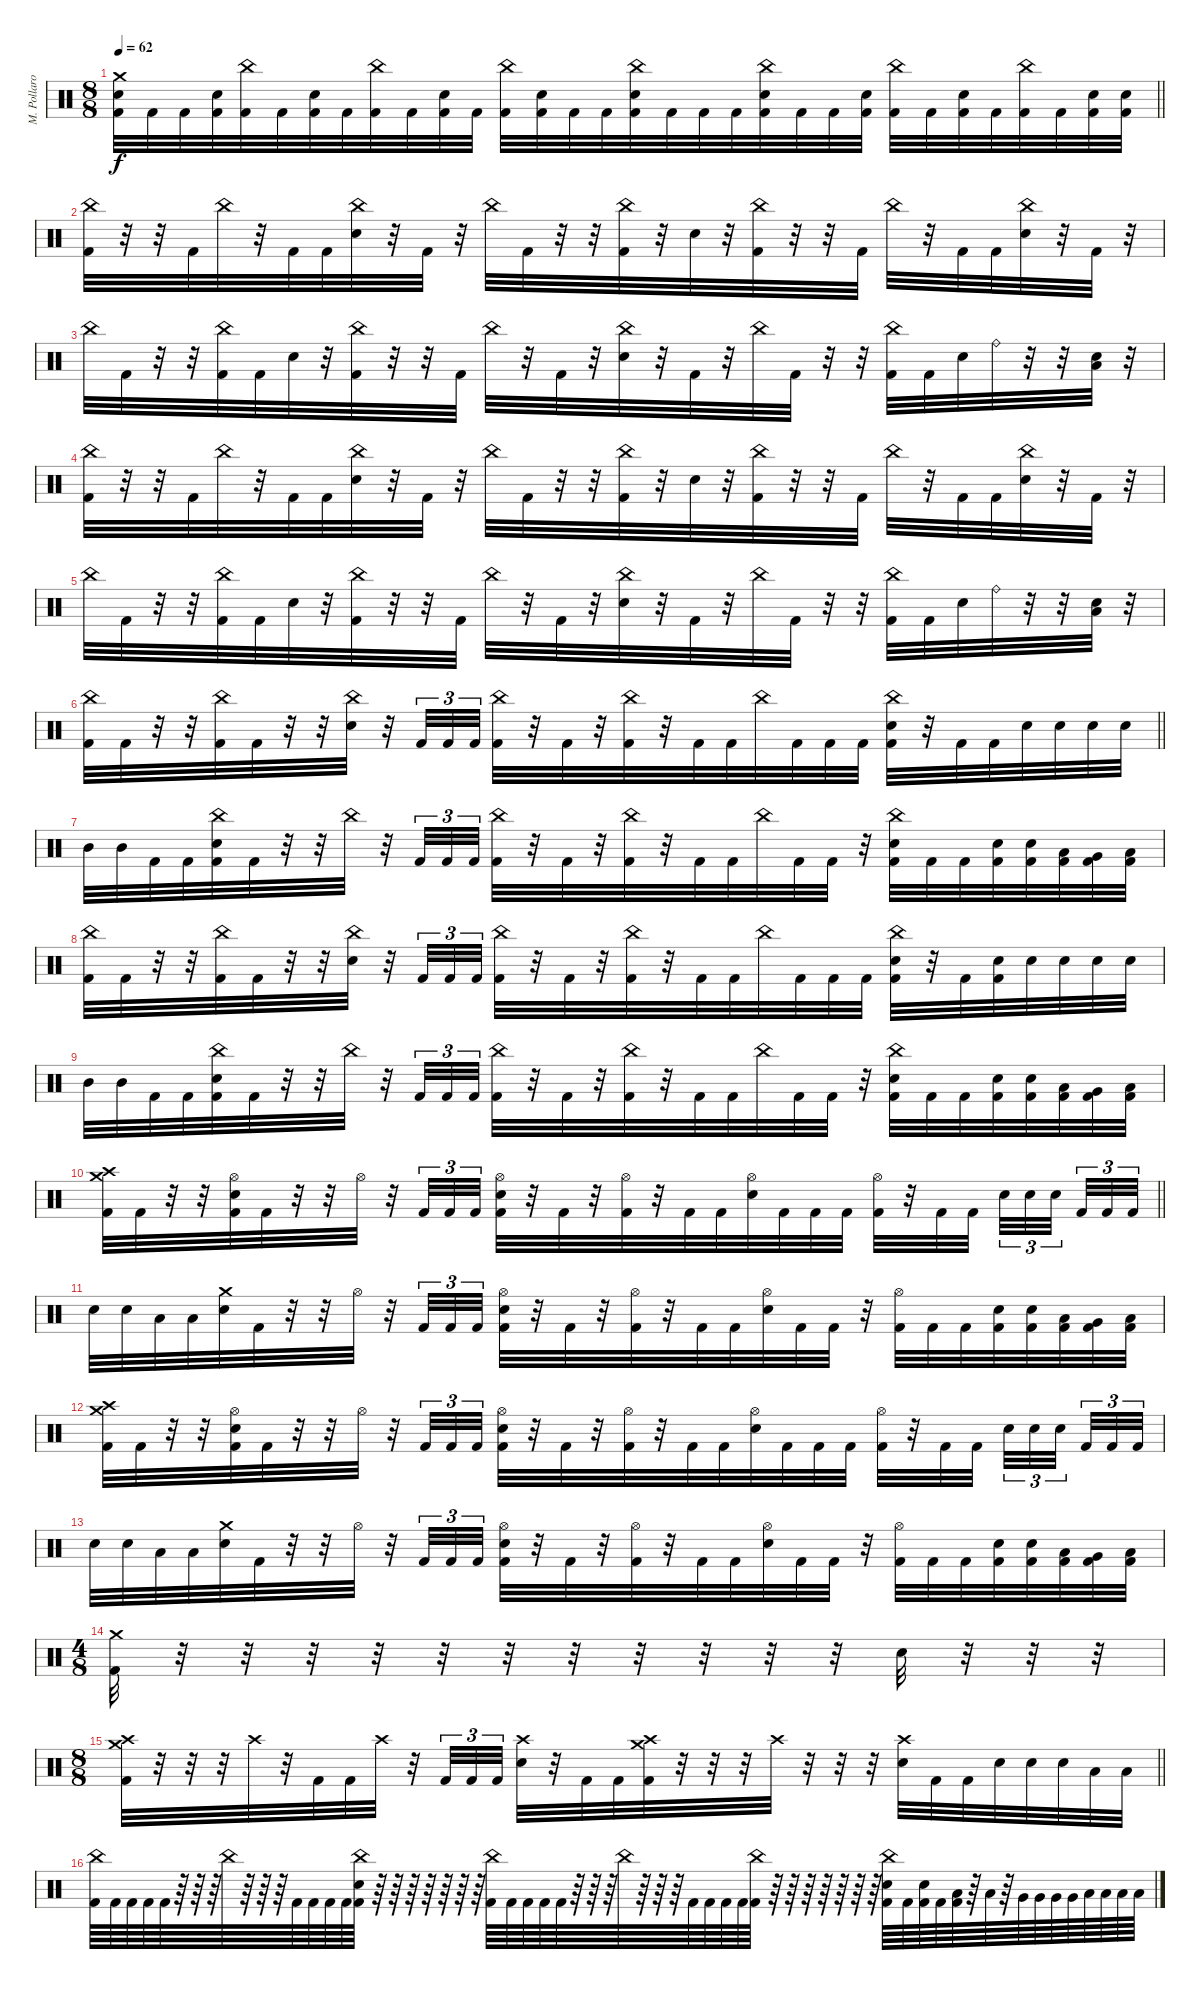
\track ("M. Pollaro" "M. Pollaro") {instrument percussion}
\staff {score}
\articulation defaults
\ts (8 8)
\tempo 62
\clef neutral
\barLineRight lightlight
\ks aminor
("Crash medium (hit)" "Snare (hit) 2" "Kick (hit) 2").32{dy f} "Kick (hit) 2".32 "Kick (hit) 2".32 ("Snare (hit) 2" "Kick (hit) 2").32 ("China (hit)" "Kick (hit) 2").32 "Kick (hit) 2".32 ("Snare (hit) 2" "Kick (hit) 2").32 "Kick (hit) 2".32 ("China (hit)" "Kick (hit) 2").32 "Kick (hit) 2".32 ("Snare (hit) 2" "Kick (hit) 2").32 "Kick (hit) 2".32 ("China (hit)" "Kick (hit) 2").32 ("Snare (hit) 2" "Kick (hit) 2").32 "Kick (hit) 2".32 "Kick (hit) 2".32 ("China (hit)" "Snare (hit) 2" "Kick (hit) 2").32 "Kick (hit) 2".32 "Kick (hit) 2".32 "Kick (hit) 2".32 ("China (hit)" "Snare (hit) 2" "Kick (hit) 2").32 "Kick (hit) 2".32 "Kick (hit) 2".32 ("Snare (hit) 2" "Kick (hit) 2").32 ("China (hit)" "Kick (hit) 2").32 "Kick (hit) 2".32 ("Snare (hit) 2" "Kick (hit) 2").32 "Kick (hit) 2".32 ("China (hit)" "Kick (hit) 2").32 "Kick (hit) 2".32 ("Snare (hit) 2" "Kick (hit) 2").32 ("Snare (hit) 2" "Kick (hit) 2").32 |
("China (hit)" "Kick (hit) 2").32 r.32 r.32 "Kick (hit) 2".32 "China (hit)".32 r.32 "Kick (hit) 2".32 "Kick (hit) 2".32 ("China (hit)" "Snare (hit) 2").32 r.32 "Kick (hit) 2".32 r.32 "China (hit)".32 "Kick (hit) 2".32 r.32 r.32 ("China (hit)" "Kick (hit) 2").32 r.32 "Snare (hit) 2".32 r.32 ("China (hit)" "Kick (hit) 2").32 r.32 r.32 "Kick (hit) 2".32 "China (hit)".32 r.32 "Kick (hit) 2".32 "Kick (hit) 2".32 ("China (hit)" "Snare (hit) 2").32 r.32 "Kick (hit) 2".32 r.32 |
"China (hit)".32 "Kick (hit) 2".32 r.32 r.32 ("China (hit)" "Kick (hit) 2").32 "Kick (hit) 2".32 "Snare (hit) 2".32 r.32 ("China (hit)" "Kick (hit) 2").32 r.32 r.32 "Kick (hit) 2".32 "China (hit)".32 r.32 "Kick (hit) 2".32 r.32 ("China (hit)" "Snare (hit) 2").32 r.32 "Kick (hit) 2".32 r.32 "China (hit)".32 "Kick (hit) 2".32 r.32 r.32 ("China (hit)" "Kick (hit) 2").32 "Kick (hit) 2".32 "Snare (hit) 2".32 "Ride (bell)".32 r.32 r.32 ("Low Floor Tom (hit)" "Snare (hit) 2").32 r.32 |
("China (hit)" "Kick (hit) 2").32 r.32 r.32 "Kick (hit) 2".32 "China (hit)".32 r.32 "Kick (hit) 2".32 "Kick (hit) 2".32 ("China (hit)" "Snare (hit) 2").32 r.32 "Kick (hit) 2".32 r.32 "China (hit)".32 "Kick (hit) 2".32 r.32 r.32 ("China (hit)" "Kick (hit) 2").32 r.32 "Snare (hit) 2".32 r.32 ("China (hit)" "Kick (hit) 2").32 r.32 r.32 "Kick (hit) 2".32 "China (hit)".32 r.32 "Kick (hit) 2".32 "Kick (hit) 2".32 ("China (hit)" "Snare (hit) 2").32 r.32 "Kick (hit) 2".32 r.32 |
"China (hit)".32 "Kick (hit) 2".32 r.32 r.32 ("China (hit)" "Kick (hit) 2").32 "Kick (hit) 2".32 "Snare (hit) 2".32 r.32 ("China (hit)" "Kick (hit) 2").32 r.32 r.32 "Kick (hit) 2".32 "China (hit)".32 r.32 "Kick (hit) 2".32 r.32 ("China (hit)" "Snare (hit) 2").32 r.32 "Kick (hit) 2".32 r.32 "China (hit)".32 "Kick (hit) 2".32 r.32 r.32 ("China (hit)" "Kick (hit) 2").32 "Kick (hit) 2".32 "Snare (hit) 2".32 "Ride (bell)".32 r.32 r.32 ("Low Floor Tom (hit)" "Snare (hit) 2").32 r.32 |
\barLineRight lightlight
("China (hit)" "Kick (hit) 2").32 "Kick (hit) 2".32 r.32 r.32 ("China (hit)" "Kick (hit) 2").32 "Kick (hit) 2".32 r.32 r.32 ("China (hit)" "Snare (hit) 2").32 r.32 "Kick (hit) 2".32{tu (3 2)} "Kick (hit) 2".32{tu (3 2)} "Kick (hit) 2".32{tu (3 2)} ("China (hit)" "Kick (hit) 2").32 r.32 "Kick (hit) 2".32 r.32 ("China (hit)" "Kick (hit) 2").32 r.32 "Kick (hit) 2".32 "Kick (hit) 2".32 "China (hit)".32 "Kick (hit) 2".32 "Kick (hit) 2".32 "Kick (hit) 2".32 ("China (hit)" "Snare (hit) 2" "Kick (hit) 2").32 r.32 "Kick (hit) 2".32 "Kick (hit) 2".32 "Snare (hit) 2".32 "Snare (hit) 2".32 "Snare (hit) 2".32 "Snare (hit) 2".32 |
"Mid Tom (hit)".32 "Mid Tom (hit)".32 "Kick (hit) 2".32 "Kick (hit) 2".32 ("China (hit)" "Snare (hit) 2" "Kick (hit) 2").32 "Kick (hit) 2".32 r.32 r.32 "China (hit)".32 r.32 "Kick (hit) 2".32{tu (3 2)} "Kick (hit) 2".32{tu (3 2)} "Kick (hit) 2".32{tu (3 2)} ("China (hit)" "Kick (hit) 2").32 r.32 "Kick (hit) 2".32 r.32 ("China (hit)" "Kick (hit) 2").32 r.32 "Kick (hit) 2".32 "Kick (hit) 2".32 "China (hit)".32 "Kick (hit) 2".32 "Kick (hit) 2".32 r.32 ("China (hit)" "Snare (hit) 2" "Kick (hit) 2").32 "Kick (hit) 2".32 "Kick (hit) 2".32 ("Snare (hit) 2" "Kick (hit) 2").32 ("Snare (hit) 2" "Kick (hit) 2").32 ("Low Tom (hit)" "Kick (hit) 2").32 ("Very Low Tom (hit)" "Kick (hit) 2").32 ("Low Floor Tom (hit)" "Kick (hit) 2").32 |
("China (hit)" "Kick (hit) 2").32 "Kick (hit) 2".32 r.32 r.32 ("China (hit)" "Kick (hit) 2").32 "Kick (hit) 2".32 r.32 r.32 ("China (hit)" "Snare (hit) 2").32 r.32 "Kick (hit) 2".32{tu (3 2)} "Kick (hit) 2".32{tu (3 2)} "Kick (hit) 2".32{tu (3 2)} ("China (hit)" "Kick (hit) 2").32 r.32 "Kick (hit) 2".32 r.32 ("China (hit)" "Kick (hit) 2").32 r.32 "Kick (hit) 2".32 "Kick (hit) 2".32 "China (hit)".32 "Kick (hit) 2".32 "Kick (hit) 2".32 "Kick (hit) 2".32 ("China (hit)" "Snare (hit) 2" "Kick (hit) 2").32 r.32 "Kick (hit) 2".32 ("Snare (hit) 2" "Kick (hit) 2").32 "Snare (hit) 2".32 "Snare (hit) 2".32 "Snare (hit) 2".32 "Snare (hit) 2".32 |
"Mid Tom (hit)".32 "Mid Tom (hit)".32 "Kick (hit) 2".32 "Kick (hit) 2".32 ("China (hit)" "Snare (hit) 2" "Kick (hit) 2").32 "Kick (hit) 2".32 r.32 r.32 "China (hit)".32 r.32 "Kick (hit) 2".32{tu (3 2)} "Kick (hit) 2".32{tu (3 2)} "Kick (hit) 2".32{tu (3 2)} ("China (hit)" "Kick (hit) 2").32 r.32 "Kick (hit) 2".32 r.32 ("China (hit)" "Kick (hit) 2").32 r.32 "Kick (hit) 2".32 "Kick (hit) 2".32 "China (hit)".32 "Kick (hit) 2".32 "Kick (hit) 2".32 r.32 ("China (hit)" "Snare (hit) 2" "Kick (hit) 2").32 "Kick (hit) 2".32 "Kick (hit) 2".32 ("Snare (hit) 2" "Kick (hit) 2").32 ("Snare (hit) 2" "Kick (hit) 2").32 ("Low Tom (hit)" "Kick (hit) 2").32 ("Very Low Tom (hit)" "Kick (hit) 2").32 ("Low Floor Tom (hit)" "Kick (hit) 2").32 |
\barLineRight lightlight
("Crash medium (hit)" "Crash high (hit)" "Kick (hit) 2").32 "Kick (hit) 2".32 r.32 r.32 ("Hi-Hat (open)" "Snare (hit) 2" "Kick (hit) 2").32 "Kick (hit) 2".32 r.32 r.32 "Hi-Hat (open)".32 r.32 "Kick (hit) 2".32{tu (3 2)} "Kick (hit) 2".32{tu (3 2)} "Kick (hit) 2".32{tu (3 2)} ("Hi-Hat (open)" "Snare (hit) 2" "Kick (hit) 2").32 r.32 "Kick (hit) 2".32 r.32 ("Hi-Hat (open)" "Kick (hit) 2").32 r.32 "Kick (hit) 2".32 "Kick (hit) 2".32 ("Hi-Hat (open)" "Snare (hit) 2").32 "Kick (hit) 2".32 "Kick (hit) 2".32 "Kick (hit) 2".32 ("Hi-Hat (open)" "Kick (hit) 2").32 r.32 "Kick (hit) 2".32 "Kick (hit) 2".32 "Snare (hit) 2".32{tu (3 2)} "Snare (hit) 2".32{tu (3 2)} "Snare (hit) 2".32{tu (3 2) beam splitsecondary} "Kick (hit) 2".32{tu (3 2)} "Kick (hit) 2".32{tu (3 2)} "Kick (hit) 2".32{tu (3 2)} |
"Snare (hit) 2".32 "Snare (hit) 2".32 "Low Tom (hit)".32 "Low Tom (hit)".32 ("Crash medium (hit)" "Snare (hit) 2").32 "Kick (hit) 2".32 r.32 r.32 "Hi-Hat (open)".32 r.32 "Kick (hit) 2".32{tu (3 2)} "Kick (hit) 2".32{tu (3 2)} "Kick (hit) 2".32{tu (3 2)} ("Hi-Hat (open)" "Snare (hit) 2" "Kick (hit) 2").32 r.32 "Kick (hit) 2".32 r.32 ("Hi-Hat (open)" "Kick (hit) 2").32 r.32 "Kick (hit) 2".32 "Kick (hit) 2".32 ("Hi-Hat (open)" "Snare (hit) 2").32 "Kick (hit) 2".32 "Kick (hit) 2".32 r.32 ("Hi-Hat (open)" "Kick (hit) 2").32 "Kick (hit) 2".32 "Kick (hit) 2".32 ("Snare (hit) 2" "Kick (hit) 2").32 ("Snare (hit) 2" "Kick (hit) 2").32 ("Low Tom (hit)" "Kick (hit) 2").32 ("Very Low Tom (hit)" "Kick (hit) 2").32 ("Low Floor Tom (hit)" "Kick (hit) 2").32 |
("Crash medium (hit)" "Crash high (hit)" "Kick (hit) 2").32 "Kick (hit) 2".32 r.32 r.32 ("Hi-Hat (open)" "Snare (hit) 2" "Kick (hit) 2").32 "Kick (hit) 2".32 r.32 r.32 "Hi-Hat (open)".32 r.32 "Kick (hit) 2".32{tu (3 2)} "Kick (hit) 2".32{tu (3 2)} "Kick (hit) 2".32{tu (3 2)} ("Hi-Hat (open)" "Snare (hit) 2" "Kick (hit) 2").32 r.32 "Kick (hit) 2".32 r.32 ("Hi-Hat (open)" "Kick (hit) 2").32 r.32 "Kick (hit) 2".32 "Kick (hit) 2".32 ("Hi-Hat (open)" "Snare (hit) 2").32 "Kick (hit) 2".32 "Kick (hit) 2".32 "Kick (hit) 2".32 ("Hi-Hat (open)" "Kick (hit) 2").32 r.32 "Kick (hit) 2".32 "Kick (hit) 2".32 "Snare (hit) 2".32{tu (3 2)} "Snare (hit) 2".32{tu (3 2)} "Snare (hit) 2".32{tu (3 2) beam splitsecondary} "Kick (hit) 2".32{tu (3 2)} "Kick (hit) 2".32{tu (3 2)} "Kick (hit) 2".32{tu (3 2)} |
"Snare (hit) 2".32 "Snare (hit) 2".32 "Low Tom (hit)".32 "Low Tom (hit)".32 ("Crash medium (hit)" "Snare (hit) 2").32 "Kick (hit) 2".32 r.32 r.32 "Hi-Hat (open)".32 r.32 "Kick (hit) 2".32{tu (3 2)} "Kick (hit) 2".32{tu (3 2)} "Kick (hit) 2".32{tu (3 2)} ("Hi-Hat (open)" "Snare (hit) 2" "Kick (hit) 2").32 r.32 "Kick (hit) 2".32 r.32 ("Hi-Hat (open)" "Kick (hit) 2").32 r.32 "Kick (hit) 2".32 "Kick (hit) 2".32 ("Hi-Hat (open)" "Snare (hit) 2").32 "Kick (hit) 2".32 "Kick (hit) 2".32 r.32 ("Hi-Hat (open)" "Kick (hit) 2").32 "Kick (hit) 2".32 "Kick (hit) 2".32 ("Snare (hit) 2" "Kick (hit) 2").32 ("Snare (hit) 2" "Kick (hit) 2").32 ("Low Tom (hit)" "Kick (hit) 2").32 ("Very Low Tom (hit)" "Kick (hit) 2").32 ("Low Floor Tom (hit)" "Kick (hit) 2").32 |
\ts (4 8)
("Crash medium (hit)" "Kick (hit) 2").32 r.32 r.32 r.32 r.32 r.32 r.32 r.32 r.32 r.32 r.32 r.32 "Snare (hit) 2".32 r.32 r.32 r.32 |
\ts (8 8)
\barLineRight lightlight
("Crash medium (hit)" "Crash high (hit)" "Kick (hit) 2").32 r.32 r.32 r.32 "Crash high (hit)".32 r.32 "Kick (hit) 2".32 "Kick (hit) 2".32 "Crash high (hit)".32 r.32 "Kick (hit) 2".32{tu (3 2)} "Kick (hit) 2".32{tu (3 2)} "Kick (hit) 2".32{tu (3 2)} ("Crash high (hit)" "Snare (hit) 2").32 r.32 "Kick (hit) 2".32 "Kick (hit) 2".32 ("Crash high (hit)" "Crash medium (hit)" "Kick (hit) 2").32 r.32 r.32 r.32 "Crash high (hit)".32 r.32 r.32 r.32 ("Crash high (hit)" "Snare (hit) 2").32 "Kick (hit) 2".32 "Kick (hit) 2".32 "Snare (hit) 2".32 "Snare (hit) 2".32 "Snare (hit) 2".32 "Low Tom (hit)".32 "Low Tom (hit)".32 |
("China (hit)" "Kick (hit) 2").64 "Kick (hit) 2".64 "Kick (hit) 2".64 "Kick (hit) 2".64 "Kick (hit) 2".64 r.64 r.64 r.64 "China (hit)".64 r.64 r.64 r.64 "Kick (hit) 2".64 "Kick (hit) 2".64 "Kick (hit) 2".64 "Kick (hit) 2".64 ("China (hit)" "Snare (hit) 2" "Kick (hit) 2").64 r.64 r.64 r.64 r.64 r.64 r.64 r.64 ("China (hit)" "Kick (hit) 2").64 "Kick (hit) 2".64 "Kick (hit) 2".64 "Kick (hit) 2".64 "Kick (hit) 2".64 r.64 r.64 r.64 "China (hit)".64 r.64 r.64 r.64 "Kick (hit) 2".64 "Kick (hit) 2".64 "Kick (hit) 2".64 "Kick (hit) 2".64 ("China (hit)" "Kick (hit) 2").64 r.64 r.64 r.64 r.64 r.64 r.64 r.64 ("China (hit)" "Snare (hit) 2" "Kick (hit) 2").64 "Kick (hit) 2".64 ("Snare (hit) 2" "Kick (hit) 2").64 "Kick (hit) 2".64 ("Low Tom (hit)" "Kick (hit) 2").64 r.64 "Low Tom (hit)".64 r.64 "Very Low Tom (hit)".64 "Very Low Tom (hit)".64 "Very Low Tom (hit)".64 "Very Low Tom (hit)".64 "Low Floor Tom (hit)".64 "Low Floor Tom (hit)".64 "Low Floor Tom (hit)".64 "Low Floor Tom (hit)".64
